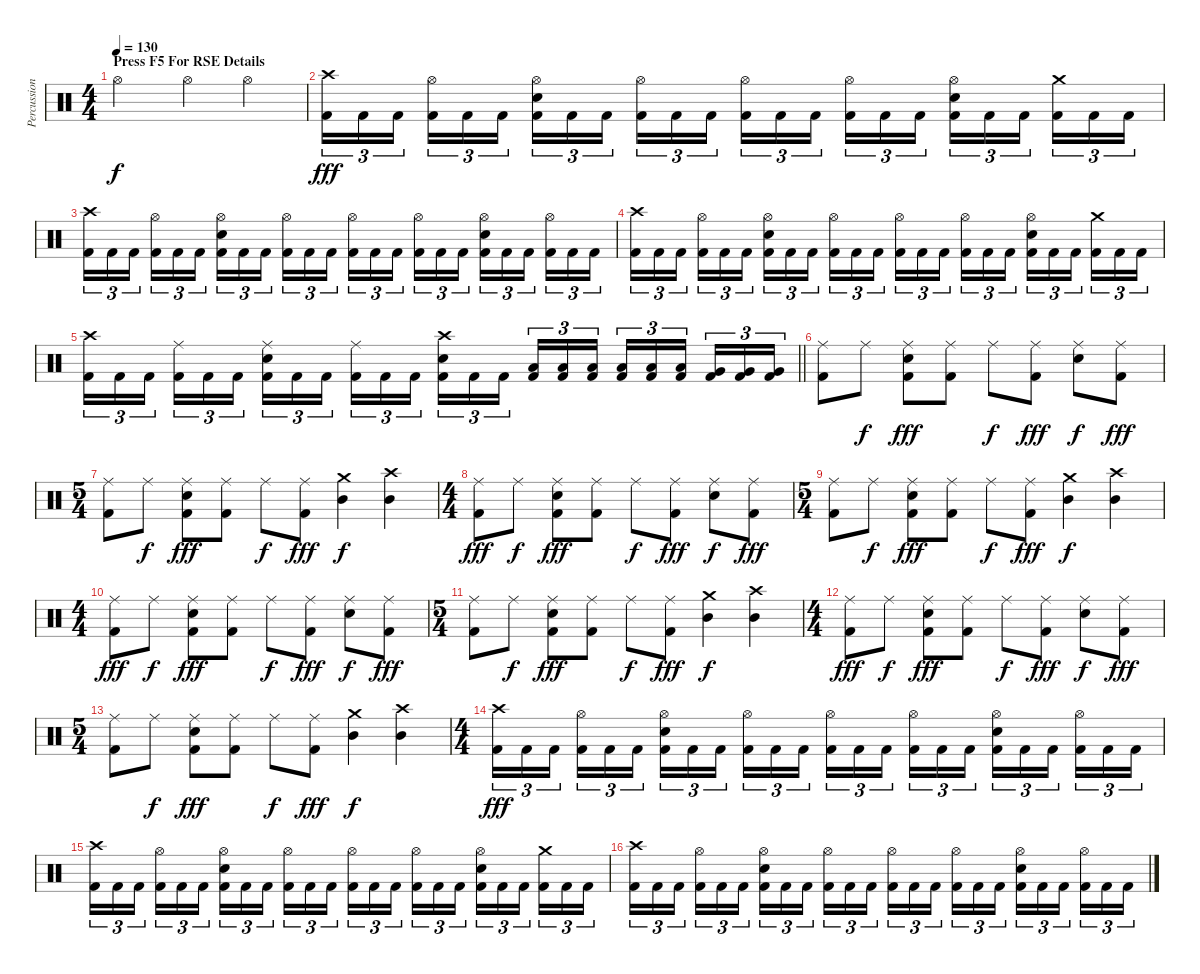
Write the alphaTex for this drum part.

\track ("Percussion" "Percussion") {instrument percussion}
\staff {score}
\articulation defaults
\ts (4 4)
\section ("" "Press F5 For RSE Details")
\tempo 130
\clef neutral
\ks c "Hi-Hat (open)".2{dy f} "Hi-Hat (open)".4 "Hi-Hat (open)".4
|
("Crash high (hit)" "Kick (hit) 2").16{tu (3 2) dy fff} "Kick (hit) 2".16{tu (3 2)} "Kick (hit) 2".16{tu (3 2) beam splitsecondary} ("Hi-Hat (open)" "Kick (hit) 2").16{tu (3 2)} "Kick (hit) 2".16{tu (3 2)} "Kick (hit) 2".16{tu (3 2)} ("Hi-Hat (open)" "Snare (hit) 2" "Kick (hit) 2").16{tu (3 2)} "Kick (hit) 2".16{tu (3 2)} "Kick (hit) 2".16{tu (3 2) beam splitsecondary} ("Hi-Hat (open)" "Kick (hit) 2").16{tu (3 2)} "Kick (hit) 2".16{tu (3 2)} "Kick (hit) 2".16{tu (3 2)} ("Hi-Hat (open)" "Kick (hit) 2").16{tu (3 2)} "Kick (hit) 2".16{tu (3 2)} "Kick (hit) 2".16{tu (3 2) beam splitsecondary} ("Hi-Hat (open)" "Kick (hit) 2").16{tu (3 2)} "Kick (hit) 2".16{tu (3 2)} "Kick (hit) 2".16{tu (3 2)} ("Hi-Hat (open)" "Snare (hit) 2" "Kick (hit) 2").16{tu (3 2)} "Kick (hit) 2".16{tu (3 2)} "Kick (hit) 2".16{tu (3 2) beam splitsecondary} ("Crash medium (hit)" "Kick (hit) 2").16{tu (3 2)} "Kick (hit) 2".16{tu (3 2)} "Kick (hit) 2".16{tu (3 2)} |
("Crash high (hit)" "Kick (hit) 2").16{tu (3 2)} "Kick (hit) 2".16{tu (3 2)} "Kick (hit) 2".16{tu (3 2) beam splitsecondary} ("Hi-Hat (open)" "Kick (hit) 2").16{tu (3 2)} "Kick (hit) 2".16{tu (3 2)} "Kick (hit) 2".16{tu (3 2)} ("Hi-Hat (open)" "Snare (hit) 2" "Kick (hit) 2").16{tu (3 2)} "Kick (hit) 2".16{tu (3 2)} "Kick (hit) 2".16{tu (3 2) beam splitsecondary} ("Hi-Hat (open)" "Kick (hit) 2").16{tu (3 2)} "Kick (hit) 2".16{tu (3 2)} "Kick (hit) 2".16{tu (3 2)} ("Hi-Hat (open)" "Kick (hit) 2").16{tu (3 2)} "Kick (hit) 2".16{tu (3 2)} "Kick (hit) 2".16{tu (3 2) beam splitsecondary} ("Hi-Hat (open)" "Kick (hit) 2").16{tu (3 2)} "Kick (hit) 2".16{tu (3 2)} "Kick (hit) 2".16{tu (3 2)} ("Hi-Hat (open)" "Snare (hit) 2" "Kick (hit) 2").16{tu (3 2)} "Kick (hit) 2".16{tu (3 2)} "Kick (hit) 2".16{tu (3 2) beam splitsecondary} ("Hi-Hat (open)" "Kick (hit) 2").16{tu (3 2)} "Kick (hit) 2".16{tu (3 2)} "Kick (hit) 2".16{tu (3 2)} |
("Crash high (hit)" "Kick (hit) 2").16{tu (3 2)} "Kick (hit) 2".16{tu (3 2)} "Kick (hit) 2".16{tu (3 2) beam splitsecondary} ("Hi-Hat (open)" "Kick (hit) 2").16{tu (3 2)} "Kick (hit) 2".16{tu (3 2)} "Kick (hit) 2".16{tu (3 2)} ("Hi-Hat (open)" "Snare (hit) 2" "Kick (hit) 2").16{tu (3 2)} "Kick (hit) 2".16{tu (3 2)} "Kick (hit) 2".16{tu (3 2) beam splitsecondary} ("Hi-Hat (open)" "Kick (hit) 2").16{tu (3 2)} "Kick (hit) 2".16{tu (3 2)} "Kick (hit) 2".16{tu (3 2)} ("Hi-Hat (open)" "Kick (hit) 2").16{tu (3 2)} "Kick (hit) 2".16{tu (3 2)} "Kick (hit) 2".16{tu (3 2) beam splitsecondary} ("Hi-Hat (open)" "Kick (hit) 2").16{tu (3 2)} "Kick (hit) 2".16{tu (3 2)} "Kick (hit) 2".16{tu (3 2)} ("Hi-Hat (open)" "Snare (hit) 2" "Kick (hit) 2").16{tu (3 2)} "Kick (hit) 2".16{tu (3 2)} "Kick (hit) 2".16{tu (3 2) beam splitsecondary} ("Crash medium (hit)" "Kick (hit) 2").16{tu (3 2)} "Kick (hit) 2".16{tu (3 2)} "Kick (hit) 2".16{tu (3 2)} |
\barLineRight lightlight
("Crash high (hit)" "Kick (hit) 2").16{tu (3 2)} "Kick (hit) 2".16{tu (3 2)} "Kick (hit) 2".16{tu (3 2) beam splitsecondary} ("Ride (middle)" "Kick (hit) 2").16{tu (3 2)} "Kick (hit) 2".16{tu (3 2)} "Kick (hit) 2".16{tu (3 2)} ("Ride (middle)" "Snare (hit) 2" "Kick (hit) 2").16{tu (3 2)} "Kick (hit) 2".16{tu (3 2)} "Kick (hit) 2".16{tu (3 2) beam splitsecondary} ("Ride (middle)" "Kick (hit) 2").16{tu (3 2)} "Kick (hit) 2".16{tu (3 2)} "Kick (hit) 2".16{tu (3 2)} ("Crash high (hit)" "Snare (hit) 2" "Kick (hit) 2").16{tu (3 2)} "Kick (hit) 2".16{tu (3 2)} "Kick (hit) 2".16{tu (3 2) beam splitsecondary} ("Low Floor Tom (hit)" "Kick (hit) 2").16{tu (3 2)} ("Low Floor Tom (hit)" "Kick (hit) 2").16{tu (3 2)} ("Low Floor Tom (hit)" "Kick (hit) 2").16{tu (3 2)} ("Low Tom (hit)" "Kick (hit) 2").16{tu (3 2)} ("Low Tom (hit)" "Kick (hit) 2").16{tu (3 2)} ("Low Tom (hit)" "Kick (hit) 2").16{tu (3 2) beam splitsecondary} ("Very Low Tom (hit)" "Kick (hit) 2").16{tu (3 2)} ("Very Low Tom (hit)" "Kick (hit) 2").16{tu (3 2)} ("Very Low Tom (hit)" "Kick (hit) 2").16{tu (3 2)} |
("Ride (middle)" "Kick (hit) 2").8 "Ride (middle)".8{dy f} ("Ride (middle)" "Snare (hit) 2" "Kick (hit) 2").8{dy fff} ("Ride (middle)" "Kick (hit) 2").8 "Ride (middle)".8{dy f} ("Ride (middle)" "Kick (hit) 2").8{dy fff} ("Ride (middle)" "Snare (hit) 2").8{dy f} ("Ride (middle)" "Kick (hit) 2").8{dy fff} |
\ts (5 4)
("Ride (middle)" "Kick (hit) 2").8 "Ride (middle)".8{dy f} ("Ride (middle)" "Snare (hit) 2" "Kick (hit) 2").8{dy fff} ("Ride (middle)" "Kick (hit) 2").8 "Ride (middle)".8{dy f} ("Ride (middle)" "Kick (hit) 2").8{dy fff} ("Crash medium (hit)" "Mid Tom (hit)").4{dy f} ("Crash high (hit)" "Mid Tom (hit)").4 |
\ts (4 4)
("Ride (middle)" "Kick (hit) 2").8{dy fff} "Ride (middle)".8{dy f} ("Ride (middle)" "Snare (hit) 2" "Kick (hit) 2").8{dy fff} ("Ride (middle)" "Kick (hit) 2").8 "Ride (middle)".8{dy f} ("Ride (middle)" "Kick (hit) 2").8{dy fff} ("Ride (middle)" "Snare (hit) 2").8{dy f} ("Ride (middle)" "Kick (hit) 2").8{dy fff} |
\ts (5 4)
("Ride (middle)" "Kick (hit) 2").8 "Ride (middle)".8{dy f} ("Ride (middle)" "Snare (hit) 2" "Kick (hit) 2").8{dy fff} ("Ride (middle)" "Kick (hit) 2").8 "Ride (middle)".8{dy f} ("Ride (middle)" "Kick (hit) 2").8{dy fff} ("Crash medium (hit)" "Mid Tom (hit)").4{dy f} ("Crash high (hit)" "Mid Tom (hit)").4 |
\ts (4 4)
("Ride (middle)" "Kick (hit) 2").8{dy fff} "Ride (middle)".8{dy f} ("Ride (middle)" "Snare (hit) 2" "Kick (hit) 2").8{dy fff} ("Ride (middle)" "Kick (hit) 2").8 "Ride (middle)".8{dy f} ("Ride (middle)" "Kick (hit) 2").8{dy fff} ("Ride (middle)" "Snare (hit) 2").8{dy f} ("Ride (middle)" "Kick (hit) 2").8{dy fff} |
\ts (5 4)
("Ride (middle)" "Kick (hit) 2").8 "Ride (middle)".8{dy f} ("Ride (middle)" "Snare (hit) 2" "Kick (hit) 2").8{dy fff} ("Ride (middle)" "Kick (hit) 2").8 "Ride (middle)".8{dy f} ("Ride (middle)" "Kick (hit) 2").8{dy fff} ("Crash medium (hit)" "Mid Tom (hit)").4{dy f} ("Crash high (hit)" "Mid Tom (hit)").4 |
\ts (4 4)
("Ride (middle)" "Kick (hit) 2").8{dy fff} "Ride (middle)".8{dy f} ("Ride (middle)" "Snare (hit) 2" "Kick (hit) 2").8{dy fff} ("Ride (middle)" "Kick (hit) 2").8 "Ride (middle)".8{dy f} ("Ride (middle)" "Kick (hit) 2").8{dy fff} ("Ride (middle)" "Snare (hit) 2").8{dy f} ("Ride (middle)" "Kick (hit) 2").8{dy fff} |
\ts (5 4)
("Ride (middle)" "Kick (hit) 2").8 "Ride (middle)".8{dy f} ("Ride (middle)" "Snare (hit) 2" "Kick (hit) 2").8{dy fff} ("Ride (middle)" "Kick (hit) 2").8 "Ride (middle)".8{dy f} ("Ride (middle)" "Kick (hit) 2").8{dy fff} ("Crash medium (hit)" "Mid Tom (hit)").4{dy f} ("Crash high (hit)" "Mid Tom (hit)").4 |
\ts (4 4)
("Crash high (hit)" "Kick (hit) 2").16{tu (3 2) dy fff} "Kick (hit) 2".16{tu (3 2)} "Kick (hit) 2".16{tu (3 2) beam splitsecondary} ("Hi-Hat (open)" "Kick (hit) 2").16{tu (3 2)} "Kick (hit) 2".16{tu (3 2)} "Kick (hit) 2".16{tu (3 2)} ("Hi-Hat (open)" "Snare (hit) 2" "Kick (hit) 2").16{tu (3 2)} "Kick (hit) 2".16{tu (3 2)} "Kick (hit) 2".16{tu (3 2) beam splitsecondary} ("Hi-Hat (open)" "Kick (hit) 2").16{tu (3 2)} "Kick (hit) 2".16{tu (3 2)} "Kick (hit) 2".16{tu (3 2)} ("Hi-Hat (open)" "Kick (hit) 2").16{tu (3 2)} "Kick (hit) 2".16{tu (3 2)} "Kick (hit) 2".16{tu (3 2) beam splitsecondary} ("Hi-Hat (open)" "Kick (hit) 2").16{tu (3 2)} "Kick (hit) 2".16{tu (3 2)} "Kick (hit) 2".16{tu (3 2)} ("Hi-Hat (open)" "Snare (hit) 2" "Kick (hit) 2").16{tu (3 2)} "Kick (hit) 2".16{tu (3 2)} "Kick (hit) 2".16{tu (3 2) beam splitsecondary} ("Hi-Hat (open)" "Kick (hit) 2").16{tu (3 2)} "Kick (hit) 2".16{tu (3 2)} "Kick (hit) 2".16{tu (3 2)} |
("Crash high (hit)" "Kick (hit) 2").16{tu (3 2)} "Kick (hit) 2".16{tu (3 2)} "Kick (hit) 2".16{tu (3 2) beam splitsecondary} ("Hi-Hat (open)" "Kick (hit) 2").16{tu (3 2)} "Kick (hit) 2".16{tu (3 2)} "Kick (hit) 2".16{tu (3 2)} ("Hi-Hat (open)" "Snare (hit) 2" "Kick (hit) 2").16{tu (3 2)} "Kick (hit) 2".16{tu (3 2)} "Kick (hit) 2".16{tu (3 2) beam splitsecondary} ("Hi-Hat (open)" "Kick (hit) 2").16{tu (3 2)} "Kick (hit) 2".16{tu (3 2)} "Kick (hit) 2".16{tu (3 2)} ("Hi-Hat (open)" "Kick (hit) 2").16{tu (3 2)} "Kick (hit) 2".16{tu (3 2)} "Kick (hit) 2".16{tu (3 2) beam splitsecondary} ("Hi-Hat (open)" "Kick (hit) 2").16{tu (3 2)} "Kick (hit) 2".16{tu (3 2)} "Kick (hit) 2".16{tu (3 2)} ("Hi-Hat (open)" "Snare (hit) 2" "Kick (hit) 2").16{tu (3 2)} "Kick (hit) 2".16{tu (3 2)} "Kick (hit) 2".16{tu (3 2) beam splitsecondary} ("Crash medium (hit)" "Kick (hit) 2").16{tu (3 2)} "Kick (hit) 2".16{tu (3 2)} "Kick (hit) 2".16{tu (3 2)} |
("Crash high (hit)" "Kick (hit) 2").16{tu (3 2)} "Kick (hit) 2".16{tu (3 2)} "Kick (hit) 2".16{tu (3 2) beam splitsecondary} ("Hi-Hat (open)" "Kick (hit) 2").16{tu (3 2)} "Kick (hit) 2".16{tu (3 2)} "Kick (hit) 2".16{tu (3 2)} ("Hi-Hat (open)" "Snare (hit) 2" "Kick (hit) 2").16{tu (3 2)} "Kick (hit) 2".16{tu (3 2)} "Kick (hit) 2".16{tu (3 2) beam splitsecondary} ("Hi-Hat (open)" "Kick (hit) 2").16{tu (3 2)} "Kick (hit) 2".16{tu (3 2)} "Kick (hit) 2".16{tu (3 2)} ("Hi-Hat (open)" "Kick (hit) 2").16{tu (3 2)} "Kick (hit) 2".16{tu (3 2)} "Kick (hit) 2".16{tu (3 2) beam splitsecondary} ("Hi-Hat (open)" "Kick (hit) 2").16{tu (3 2)} "Kick (hit) 2".16{tu (3 2)} "Kick (hit) 2".16{tu (3 2)} ("Hi-Hat (open)" "Snare (hit) 2" "Kick (hit) 2").16{tu (3 2)} "Kick (hit) 2".16{tu (3 2)} "Kick (hit) 2".16{tu (3 2) beam splitsecondary} ("Hi-Hat (open)" "Kick (hit) 2").16{tu (3 2)} "Kick (hit) 2".16{tu (3 2)} "Kick (hit) 2".16{tu (3 2)}
